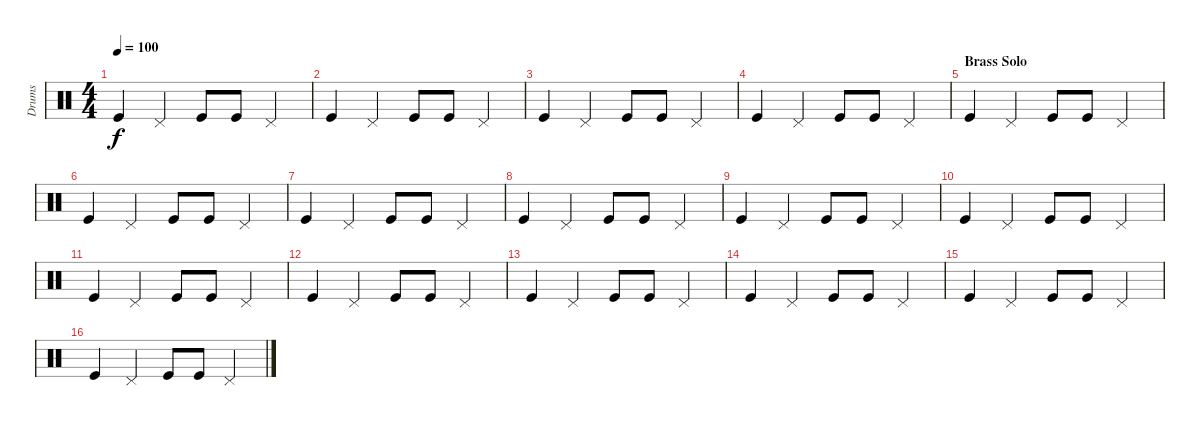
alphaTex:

\track ("Drums" "Drums") {instrument percussion}
\staff {score}
\articulation defaults
\ts (4 4)
\tempo 100
\clef neutral
\ks c "Kick (hit)".4{dy f} "Pedal Hi-Hat (hit)".4 "Kick (hit)".8 "Kick (hit)".8 "Pedal Hi-Hat (hit)".4
|
"Kick (hit)".4 "Pedal Hi-Hat (hit)".4 "Kick (hit)".8 "Kick (hit)".8 "Pedal Hi-Hat (hit)".4 |
"Kick (hit)".4 "Pedal Hi-Hat (hit)".4 "Kick (hit)".8 "Kick (hit)".8 "Pedal Hi-Hat (hit)".4 |
"Kick (hit)".4 "Pedal Hi-Hat (hit)".4 "Kick (hit)".8 "Kick (hit)".8 "Pedal Hi-Hat (hit)".4 |
\section ("" "Brass Solo")
"Kick (hit)".4 "Pedal Hi-Hat (hit)".4 "Kick (hit)".8 "Kick (hit)".8 "Pedal Hi-Hat (hit)".4 |
"Kick (hit)".4 "Pedal Hi-Hat (hit)".4 "Kick (hit)".8 "Kick (hit)".8 "Pedal Hi-Hat (hit)".4 |
"Kick (hit)".4 "Pedal Hi-Hat (hit)".4 "Kick (hit)".8 "Kick (hit)".8 "Pedal Hi-Hat (hit)".4 |
"Kick (hit)".4 "Pedal Hi-Hat (hit)".4 "Kick (hit)".8 "Kick (hit)".8 "Pedal Hi-Hat (hit)".4 |
"Kick (hit)".4 "Pedal Hi-Hat (hit)".4 "Kick (hit)".8 "Kick (hit)".8 "Pedal Hi-Hat (hit)".4 |
"Kick (hit)".4 "Pedal Hi-Hat (hit)".4 "Kick (hit)".8 "Kick (hit)".8 "Pedal Hi-Hat (hit)".4 |
"Kick (hit)".4 "Pedal Hi-Hat (hit)".4 "Kick (hit)".8 "Kick (hit)".8 "Pedal Hi-Hat (hit)".4 |
"Kick (hit)".4 "Pedal Hi-Hat (hit)".4 "Kick (hit)".8 "Kick (hit)".8 "Pedal Hi-Hat (hit)".4 |
"Kick (hit)".4 "Pedal Hi-Hat (hit)".4 "Kick (hit)".8 "Kick (hit)".8 "Pedal Hi-Hat (hit)".4 |
"Kick (hit)".4 "Pedal Hi-Hat (hit)".4 "Kick (hit)".8 "Kick (hit)".8 "Pedal Hi-Hat (hit)".4 |
"Kick (hit)".4 "Pedal Hi-Hat (hit)".4 "Kick (hit)".8 "Kick (hit)".8 "Pedal Hi-Hat (hit)".4 |
"Kick (hit)".4 "Pedal Hi-Hat (hit)".4 "Kick (hit)".8 "Kick (hit)".8 "Pedal Hi-Hat (hit)".4
